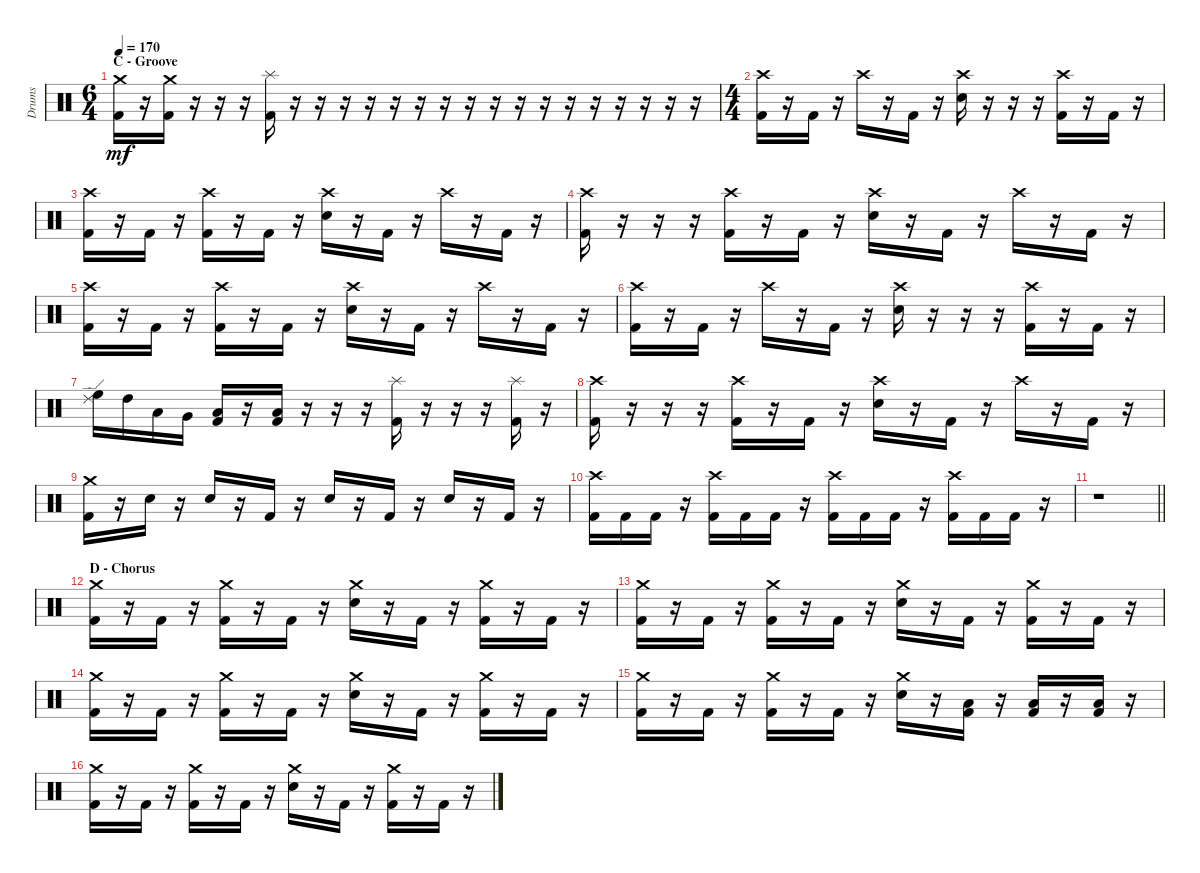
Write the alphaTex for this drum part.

\track ("Drums" "Drums") {instrument percussion}
\staff {score}
\articulation defaults
\ts (6 4)
\section ("" "C - Groove")
\tempo 170
\clef neutral
\ks c
("Crash medium (hit)" "Kick (hit) 2").16{dy mf} r.16 ("Crash medium (hit)" "Kick (hit) 2").16 r.16 r.16 r.16 ("Splash (hit)" "Kick (hit) 2").16 r.16 r.16 r.16 r.16 r.16 r.16 r.16 r.16 r.16 r.16 r.16 r.16 r.16 r.16 r.16 r.16 r.16 |
\ts (4 4)
("Crash high (hit)" "Kick (hit) 2").16 r.16 "Kick (hit) 2".16 r.16 "Crash high (hit)".16 r.16 "Kick (hit) 2".16 r.16 ("Crash high (hit)" "Electric Snare (hit)").16 r.16 r.16 r.16 ("Crash high (hit)" "Kick (hit) 2").16 r.16 "Kick (hit) 2".16 r.16 |
("Crash high (hit)" "Kick (hit) 2").16 r.16 "Kick (hit) 2".16 r.16 ("Crash high (hit)" "Kick (hit) 2").16 r.16 "Kick (hit) 2".16 r.16 ("Crash high (hit)" "Electric Snare (hit)").16 r.16 "Kick (hit) 2".16 r.16 "Crash high (hit)".16 r.16 "Kick (hit) 2".16 r.16 |
("Crash high (hit)" "Kick (hit) 2").16 r.16 r.16 r.16 ("Crash high (hit)" "Kick (hit) 2").16 r.16 "Kick (hit) 2".16 r.16 ("Crash high (hit)" "Electric Snare (hit)").16 r.16 "Kick (hit) 2".16 r.16 "Crash high (hit)".16 r.16 "Kick (hit) 2".16 r.16 |
("Crash high (hit)" "Kick (hit) 2").16 r.16 "Kick (hit) 2".16 r.16 ("Crash high (hit)" "Kick (hit) 2").16 r.16 "Kick (hit) 2".16 r.16 ("Crash high (hit)" "Electric Snare (hit)").16 r.16 "Kick (hit) 2".16 r.16 "Crash high (hit)".16 r.16 "Kick (hit) 2".16 r.16 |
("Crash high (hit)" "Kick (hit) 2").16 r.16 "Kick (hit) 2".16 r.16 "Crash high (hit)".16 r.16 "Kick (hit) 2".16 r.16 ("Crash high (hit)" "Electric Snare (hit)").16 r.16 r.16 r.16 ("Crash high (hit)" "Kick (hit) 2").16 r.16 "Kick (hit) 2".16 r.16 |
("Ride (edge) 2" "High Floor Tom (hit)").16 "High Tom (hit)".16 "Low Tom (hit)".16 "Very Low Tom (hit)".16 ("Low Floor Tom (hit)" "Kick (hit) 2").16 r.16 ("Low Floor Tom (hit)" "Kick (hit) 2").16 r.16 r.16 r.16 ("Splash (hit)" "Kick (hit) 2").16 r.16 r.16 r.16 ("Splash (hit)" "Kick (hit) 2").16 r.16 |
("Crash high (hit)" "Kick (hit) 2").16 r.16 r.16 r.16 ("Crash high (hit)" "Kick (hit) 2").16 r.16 "Kick (hit) 2".16 r.16 ("Crash high (hit)" "Electric Snare (hit)").16 r.16 "Kick (hit) 2".16 r.16 "Crash high (hit)".16 r.16 "Kick (hit) 2".16 r.16 |
("Crash medium (hit)" "Kick (hit) 2").16 r.16 "Electric Snare (hit)".16 r.16 "Electric Snare (hit)".16 r.16 "Kick (hit) 2".16 r.16 "Electric Snare (hit)".16 r.16 "Kick (hit) 2".16 r.16 "Electric Snare (hit)".16 r.16 "Kick (hit) 2".16 r.16 |
("Crash high (hit)" "Kick (hit) 2").16 "Kick (hit) 2".16 "Kick (hit) 2".16 r.16 ("Crash high (hit)" "Kick (hit) 2").16 "Kick (hit) 2".16 "Kick (hit) 2".16 r.16 ("Crash high (hit)" "Kick (hit) 2").16 "Kick (hit) 2".16 "Kick (hit) 2".16 r.16 ("Crash high (hit)" "Kick (hit) 2").16 "Kick (hit) 2".16 "Kick (hit) 2".16 r.16 |
\barLineRight lightlight
r.1 |
\section ("" "D - Chorus")
("Crash medium (hit)" "Kick (hit) 2").16 r.16 "Kick (hit) 2".16 r.16 ("Crash medium (hit)" "Kick (hit) 2").16 r.16 "Kick (hit) 2".16 r.16 ("Crash medium (hit)" "Electric Snare (hit)").16 r.16 "Kick (hit) 2".16 r.16 ("Crash medium (hit)" "Kick (hit) 2").16 r.16 "Kick (hit) 2".16 r.16 |
("Crash medium (hit)" "Kick (hit) 2").16 r.16 "Kick (hit) 2".16 r.16 ("Crash medium (hit)" "Kick (hit) 2").16 r.16 "Kick (hit) 2".16 r.16 ("Crash medium (hit)" "Electric Snare (hit)").16 r.16 "Kick (hit) 2".16 r.16 ("Crash medium (hit)" "Kick (hit) 2").16 r.16 "Kick (hit) 2".16 r.16 |
("Crash medium (hit)" "Kick (hit) 2").16 r.16 "Kick (hit) 2".16 r.16 ("Crash medium (hit)" "Kick (hit) 2").16 r.16 "Kick (hit) 2".16 r.16 ("Crash medium (hit)" "Electric Snare (hit)").16 r.16 "Kick (hit) 2".16 r.16 ("Crash medium (hit)" "Kick (hit) 2").16 r.16 "Kick (hit) 2".16 r.16 |
("Crash medium (hit)" "Kick (hit) 2").16 r.16 "Kick (hit) 2".16 r.16 ("Crash medium (hit)" "Kick (hit) 2").16 r.16 "Kick (hit) 2".16 r.16 ("Crash medium (hit)" "Electric Snare (hit)").16 r.16 ("Low Floor Tom (hit)" "Kick (hit) 2").16 r.16 ("Low Floor Tom (hit)" "Kick (hit) 2").16 r.16 ("Low Floor Tom (hit)" "Kick (hit) 2").16 r.16 |
("Crash medium (hit)" "Kick (hit) 2").16 r.16 "Kick (hit) 2".16 r.16 ("Crash medium (hit)" "Kick (hit) 2").16 r.16 "Kick (hit) 2".16 r.16 ("Crash medium (hit)" "Electric Snare (hit)").16 r.16 "Kick (hit) 2".16 r.16 ("Crash medium (hit)" "Kick (hit) 2").16 r.16 "Kick (hit) 2".16 r.16
